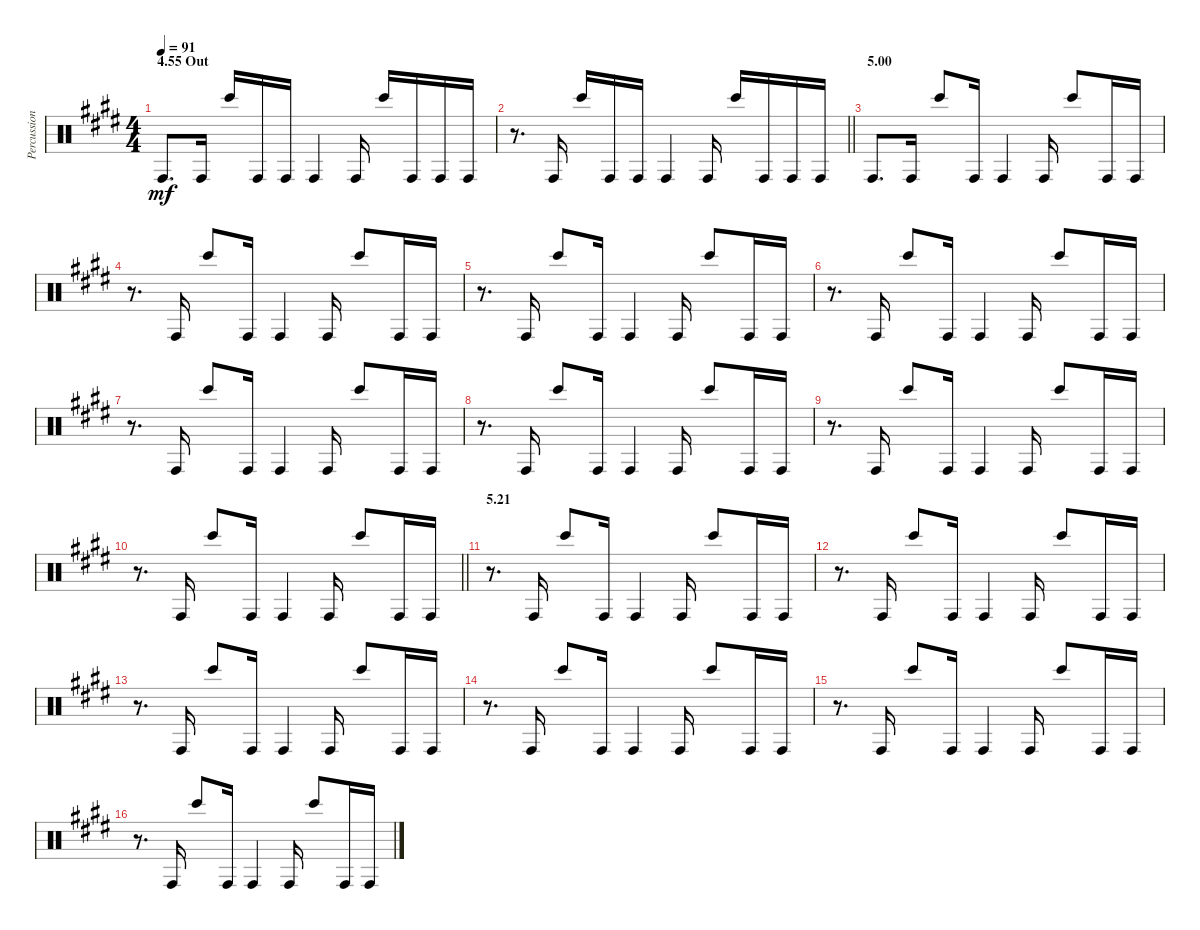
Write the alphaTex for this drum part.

\track ("Percussion" "Percussion") {instrument percussion}
\staff {score}
\articulation defaults
\ts (4 4)
\section ("" "4.55 Out")
\tempo 91
\clef neutral
\ks e "Conga high (hit)".8{d dy mf} "Conga high (hit)".16 "Bongo High (hit)".16 "Conga high (hit)".16 "Conga high (hit)".16 "Conga high (hit)".4 "Conga high (hit)".16 "Bongo High (hit)".16 "Conga high (hit)".16 "Conga high (hit)".16 "Conga high (hit)".16
|
\barLineRight lightlight
r.8{d} "Conga high (hit)".16 "Bongo High (hit)".16 "Conga high (hit)".16 "Conga high (hit)".16 "Conga high (hit)".4 "Conga high (hit)".16 "Bongo High (hit)".16 "Conga high (hit)".16 "Conga high (hit)".16 "Conga high (hit)".16 |
\section ("" "5.00")
"Conga high (hit)".8{d} "Conga high (hit)".16 "Bongo High (hit)".8 "Conga high (hit)".16 "Conga high (hit)".4 "Conga high (hit)".16 "Bongo High (hit)".8 "Conga high (hit)".16 "Conga high (hit)".16 |
r.8{d} "Conga high (hit)".16 "Bongo High (hit)".8 "Conga high (hit)".16 "Conga high (hit)".4 "Conga high (hit)".16 "Bongo High (hit)".8 "Conga high (hit)".16 "Conga high (hit)".16 |
r.8{d} "Conga high (hit)".16 "Bongo High (hit)".8 "Conga high (hit)".16 "Conga high (hit)".4 "Conga high (hit)".16 "Bongo High (hit)".8 "Conga high (hit)".16 "Conga high (hit)".16 |
r.8{d} "Conga high (hit)".16 "Bongo High (hit)".8 "Conga high (hit)".16 "Conga high (hit)".4 "Conga high (hit)".16 "Bongo High (hit)".8 "Conga high (hit)".16 "Conga high (hit)".16 |
r.8{d} "Conga high (hit)".16 "Bongo High (hit)".8 "Conga high (hit)".16 "Conga high (hit)".4 "Conga high (hit)".16 "Bongo High (hit)".8 "Conga high (hit)".16 "Conga high (hit)".16 |
r.8{d} "Conga high (hit)".16 "Bongo High (hit)".8 "Conga high (hit)".16 "Conga high (hit)".4 "Conga high (hit)".16 "Bongo High (hit)".8 "Conga high (hit)".16 "Conga high (hit)".16 |
r.8{d} "Conga high (hit)".16 "Bongo High (hit)".8 "Conga high (hit)".16 "Conga high (hit)".4 "Conga high (hit)".16 "Bongo High (hit)".8 "Conga high (hit)".16 "Conga high (hit)".16 |
\barLineRight lightlight
r.8{d} "Conga high (hit)".16 "Bongo High (hit)".8 "Conga high (hit)".16 "Conga high (hit)".4 "Conga high (hit)".16 "Bongo High (hit)".8 "Conga high (hit)".16 "Conga high (hit)".16 |
\section ("" "5.21")
r.8{d} "Conga high (hit)".16 "Bongo High (hit)".8 "Conga high (hit)".16 "Conga high (hit)".4 "Conga high (hit)".16 "Bongo High (hit)".8 "Conga high (hit)".16 "Conga high (hit)".16 |
r.8{d} "Conga high (hit)".16 "Bongo High (hit)".8 "Conga high (hit)".16 "Conga high (hit)".4 "Conga high (hit)".16 "Bongo High (hit)".8 "Conga high (hit)".16 "Conga high (hit)".16 |
r.8{d} "Conga high (hit)".16 "Bongo High (hit)".8 "Conga high (hit)".16 "Conga high (hit)".4 "Conga high (hit)".16 "Bongo High (hit)".8 "Conga high (hit)".16 "Conga high (hit)".16 |
r.8{d} "Conga high (hit)".16 "Bongo High (hit)".8 "Conga high (hit)".16 "Conga high (hit)".4 "Conga high (hit)".16 "Bongo High (hit)".8 "Conga high (hit)".16 "Conga high (hit)".16 |
r.8{d} "Conga high (hit)".16 "Bongo High (hit)".8 "Conga high (hit)".16 "Conga high (hit)".4 "Conga high (hit)".16 "Bongo High (hit)".8 "Conga high (hit)".16 "Conga high (hit)".16 |
r.8{d} "Conga high (hit)".16 "Bongo High (hit)".8 "Conga high (hit)".16 "Conga high (hit)".4 "Conga high (hit)".16 "Bongo High (hit)".8 "Conga high (hit)".16 "Conga high (hit)".16
